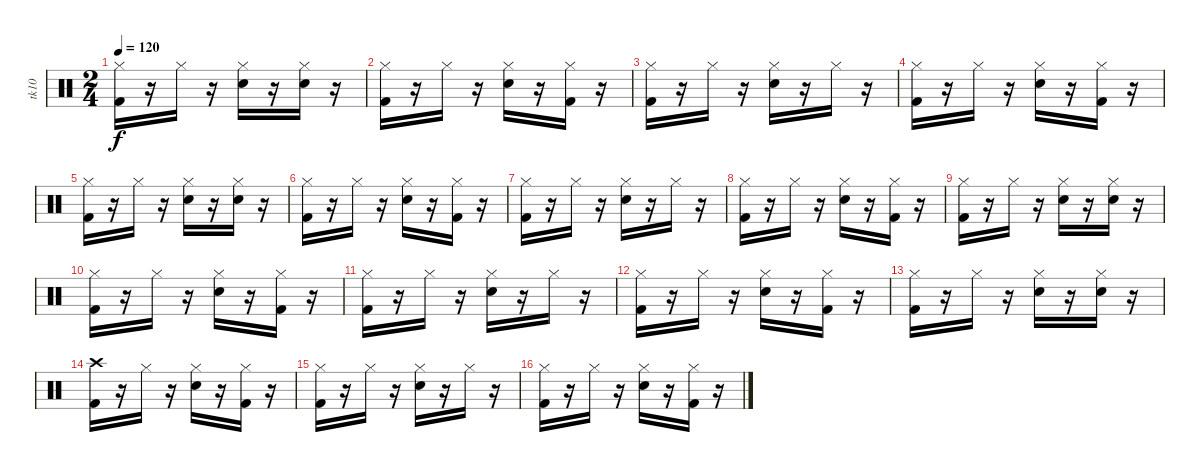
\track ("tk10" "tk10") {instrument percussion}
\staff {score}
\articulation defaults
\ts (2 4)
\tempo 120
\clef neutral
\ks c
("Kick (hit) 2" "Hi-Hat (closed)").16{dy f} r.16 "Hi-Hat (closed)".16 r.16 ("Snare (hit) 2" "Hi-Hat (closed)").16 r.16 ("Hi-Hat (closed)" "Snare (hit) 2").16 r.16 |
("Hi-Hat (closed)" "Kick (hit) 2").16 r.16 "Hi-Hat (closed)".16 r.16 ("Hi-Hat (closed)" "Snare (hit) 2").16 r.16 ("Hi-Hat (closed)" "Kick (hit) 2").16 r.16 |
("Hi-Hat (closed)" "Kick (hit) 2").16 r.16 "Hi-Hat (closed)".16 r.16 ("Snare (hit) 2" "Hi-Hat (closed)").16 r.16 "Hi-Hat (closed)".16 r.16 |
("Kick (hit) 2" "Hi-Hat (closed)").16 r.16 "Hi-Hat (closed)".16 r.16 ("Hi-Hat (closed)" "Snare (hit) 2").16 r.16 ("Hi-Hat (closed)" "Kick (hit) 2").16 r.16 |
("Hi-Hat (closed)" "Kick (hit) 2").16 r.16 "Hi-Hat (closed)".16 r.16 ("Snare (hit) 2" "Hi-Hat (closed)").16 r.16 ("Hi-Hat (closed)" "Snare (hit) 2").16 r.16 |
("Kick (hit) 2" "Hi-Hat (closed)").16 r.16 "Hi-Hat (closed)".16 r.16 ("Hi-Hat (closed)" "Snare (hit) 2").16 r.16 ("Hi-Hat (closed)" "Kick (hit) 2").16 r.16 |
("Kick (hit) 2" "Hi-Hat (closed)").16 r.16 "Hi-Hat (closed)".16 r.16 ("Hi-Hat (closed)" "Snare (hit) 2").16 r.16 "Hi-Hat (closed)".16 r.16 |
("Kick (hit) 2" "Hi-Hat (closed)").16 r.16 "Hi-Hat (closed)".16 r.16 ("Snare (hit) 2" "Hi-Hat (closed)").16 r.16 ("Hi-Hat (closed)" "Kick (hit) 2").16 r.16 |
("Hi-Hat (closed)" "Kick (hit) 2").16 r.16 "Hi-Hat (closed)".16 r.16 ("Hi-Hat (closed)" "Snare (hit) 2").16 r.16 ("Snare (hit) 2" "Hi-Hat (closed)").16 r.16 |
("Hi-Hat (closed)" "Kick (hit) 2").16 r.16 "Hi-Hat (closed)".16 r.16 ("Snare (hit) 2" "Hi-Hat (closed)").16 r.16 ("Hi-Hat (closed)" "Kick (hit) 2").16 r.16 |
("Hi-Hat (closed)" "Kick (hit) 2").16 r.16 "Hi-Hat (closed)".16 r.16 ("Hi-Hat (closed)" "Snare (hit) 2").16 r.16 "Hi-Hat (closed)".16 r.16 |
("Kick (hit) 2" "Hi-Hat (closed)").16 r.16 "Hi-Hat (closed)".16 r.16 ("Snare (hit) 2" "Hi-Hat (closed)").16 r.16 ("Kick (hit) 2" "Hi-Hat (closed)").16 r.16 |
("Hi-Hat (closed)" "Kick (hit) 2").16 r.16 "Hi-Hat (closed)".16 r.16 ("Snare (hit) 2" "Hi-Hat (closed)").16 r.16 ("Hi-Hat (closed)" "Snare (hit) 2").16 r.16 |
("Crash high (hit)" "Kick (hit) 2").16 r.16 "Hi-Hat (closed)".16 r.16 ("Snare (hit) 2" "Hi-Hat (closed)").16 r.16 ("Hi-Hat (closed)" "Kick (hit) 2").16 r.16 |
("Hi-Hat (closed)" "Kick (hit) 2").16 r.16 "Hi-Hat (closed)".16 r.16 ("Snare (hit) 2" "Hi-Hat (closed)").16 r.16 "Hi-Hat (closed)".16 r.16 |
("Kick (hit) 2" "Hi-Hat (closed)").16 r.16 "Hi-Hat (closed)".16 r.16 ("Snare (hit) 2" "Hi-Hat (closed)").16 r.16 ("Hi-Hat (closed)" "Kick (hit) 2").16 r.16
